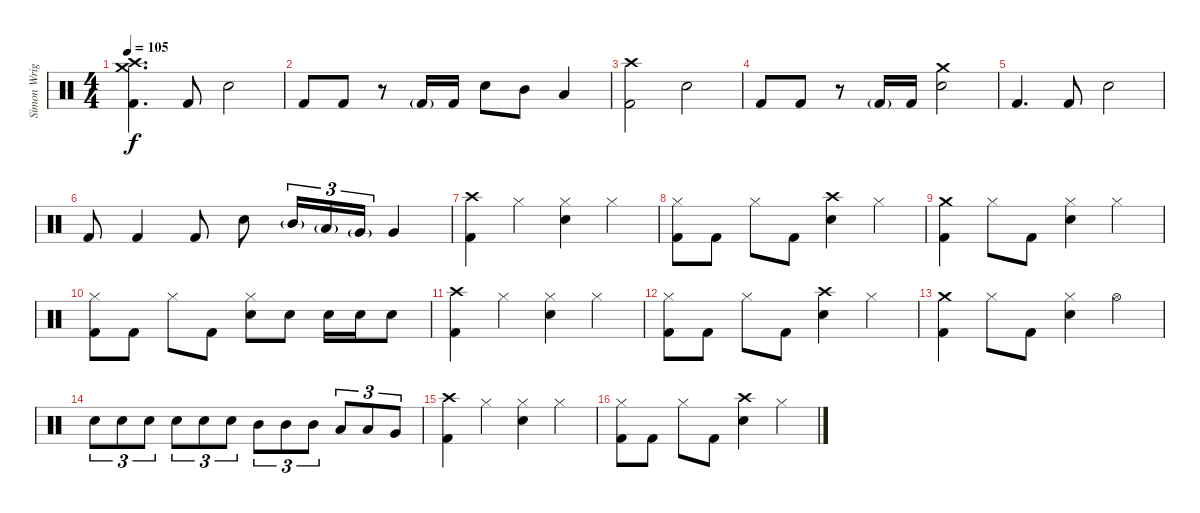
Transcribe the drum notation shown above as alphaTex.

\track ("Simon Wright" "Simon Wrig") {instrument percussion}
\staff {score}
\articulation defaults
\ts (4 4)
\tempo 105
\clef neutral
\ks c
("Crash medium (hit)" "Crash high (hit)" "Kick (hit) 2").4{d dy f} "Kick (hit) 2".8 "Snare (hit) 2".2 |
"Kick (hit) 2".8 "Kick (hit) 2".8 r.8 "Kick (hit) 2"{g}.16 "Kick (hit) 2".16 "Snare (hit) 2".8 "Mid Tom (hit)".8 "Low Tom (hit)".4 |
("Crash high (hit)" "Kick (hit) 2").2 "Snare (hit) 2".2 |
"Kick (hit) 2".8 "Kick (hit) 2".8 r.8 "Kick (hit) 2"{g}.16 "Kick (hit) 2".16 ("Crash medium (hit)" "Snare (hit) 2").2 |
"Kick (hit) 2".4{d} "Kick (hit) 2".8 "Snare (hit) 2".2 |
"Kick (hit) 2".8 "Kick (hit) 2".4 "Kick (hit) 2".8 "Snare (hit) 2".8 "Mid Tom (hit)"{g}.16{tu (3 2)} "Low Tom (hit)"{g}.16{tu (3 2)} "Very Low Tom (hit)"{g}.16{tu (3 2)} "Very Low Tom (hit)".4 |
("Crash high (hit)" "Kick (hit) 2").4 "Hi-Hat (closed)".4 ("Hi-Hat (closed)" "Snare (hit) 2").4 "Hi-Hat (closed)".4 |
("Hi-Hat (closed)" "Kick (hit) 2").8 "Kick (hit) 2".8 "Hi-Hat (closed)".8 "Kick (hit) 2".8 ("Crash high (hit)" "Snare (hit) 2").4 "Hi-Hat (closed)".4 |
("Crash medium (hit)" "Kick (hit) 2").4 "Hi-Hat (closed)".8 "Kick (hit) 2".8 ("Hi-Hat (closed)" "Snare (hit) 2").4 "Hi-Hat (closed)".4 |
("Hi-Hat (closed)" "Kick (hit) 2").8 "Kick (hit) 2".8 "Hi-Hat (closed)".8 "Kick (hit) 2".8 ("Hi-Hat (closed)" "Snare (hit) 2").8 "Snare (hit) 2".8 "Snare (hit) 2".16 "Snare (hit) 2".16 "Snare (hit) 2".8 |
("Crash high (hit)" "Kick (hit) 2").4 "Hi-Hat (closed)".4 ("Hi-Hat (closed)" "Snare (hit) 2").4 "Hi-Hat (closed)".4 |
("Hi-Hat (closed)" "Kick (hit) 2").8 "Kick (hit) 2".8 "Hi-Hat (closed)".8 "Kick (hit) 2".8 ("Crash high (hit)" "Snare (hit) 2").4 "Hi-Hat (closed)".4 |
("Crash medium (hit)" "Kick (hit) 2").4 "Hi-Hat (closed)".8 "Kick (hit) 2".8 ("Hi-Hat (closed)" "Snare (hit) 2").4 "Hi-Hat (open)".4 |
"Snare (hit) 2".8{tu (3 2)} "Snare (hit) 2".8{tu (3 2)} "Snare (hit) 2".8{tu (3 2)} "Snare (hit) 2".8{tu (3 2)} "Snare (hit) 2".8{tu (3 2)} "Snare (hit) 2".8{tu (3 2)} "Mid Tom (hit)".8{tu (3 2)} "Mid Tom (hit)".8{tu (3 2)} "Mid Tom (hit)".8{tu (3 2)} "Low Tom (hit)".8{tu (3 2)} "Low Tom (hit)".8{tu (3 2)} "Very Low Tom (hit)".8{tu (3 2)} |
("Crash high (hit)" "Kick (hit) 2").4 "Hi-Hat (closed)".4 ("Hi-Hat (closed)" "Snare (hit) 2").4 "Hi-Hat (closed)".4 |
("Hi-Hat (closed)" "Kick (hit) 2").8 "Kick (hit) 2".8 "Hi-Hat (closed)".8 "Kick (hit) 2".8 ("Crash high (hit)" "Snare (hit) 2").4 "Hi-Hat (closed)".4
